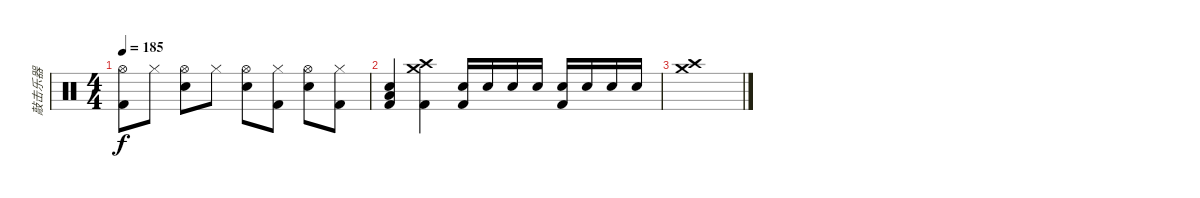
\track ("敲击乐器" "敲击乐器") {instrument percussion}
\staff {score}
\articulation defaults
\ts (4 4)
\tempo 185
\clef neutral
\ks c
("Hi-Hat (open)" "Kick (hit) 2").8{dy f} "Hi-Hat (closed)".8 ("Hi-Hat (open)" "Snare (hit) 2").8 "Hi-Hat (closed)".8 ("Hi-Hat (open)" "Snare (hit) 2").8 ("Hi-Hat (closed)" "Kick (hit) 2").8 ("Hi-Hat (open)" "Snare (hit) 2").8 ("Hi-Hat (closed)" "Kick (hit) 2").8 |
("Low Tom (hit)" "Snare (hit) 2" "Kick (hit) 2").4 ("Crash medium (hit)" "Crash high (hit)" "Kick (hit) 2").4 ("Snare (hit) 2" "Kick (hit) 2").16 "Snare (hit) 2".16 "Snare (hit) 2".16 "Snare (hit) 2".16 ("Snare (hit) 2" "Kick (hit) 2").16 "Snare (hit) 2".16 "Snare (hit) 2".16 "Snare (hit) 2".16 |
("Crash high (hit)" "Crash medium (hit)").1
